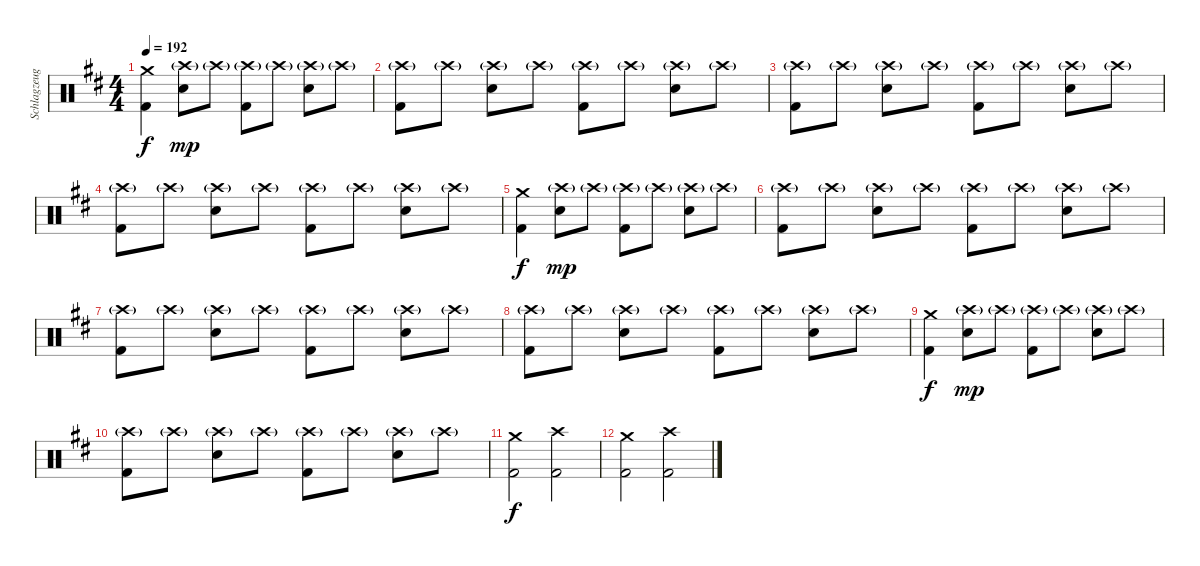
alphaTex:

\track ("Schlagzeug - Vom" "Schlagzeug") {instrument percussion}
\staff {score}
\articulation defaults
\ts (4 4)
\tempo 192
\clef neutral
\ks d
("Crash medium (hit)" "Kick (hit) 2").4{dy f} ("Crash high (hit)"{g} "Snare (hit) 2").8{dy mp} "Crash high (hit)"{g}.8 ("Crash high (hit)"{g} "Kick (hit) 2").8 "Crash high (hit)"{g}.8 ("Crash high (hit)"{g} "Snare (hit) 2").8 "Crash high (hit)"{g}.8 |
("Crash high (hit)"{g} "Kick (hit) 2").8 "Crash high (hit)"{g}.8 ("Crash high (hit)"{g} "Snare (hit) 2").8 "Crash high (hit)"{g}.8 ("Crash high (hit)"{g} "Kick (hit) 2").8 "Crash high (hit)"{g}.8 ("Crash high (hit)"{g} "Snare (hit) 2").8 "Crash high (hit)"{g}.8 |
("Crash high (hit)"{g} "Kick (hit) 2").8 "Crash high (hit)"{g}.8 ("Crash high (hit)"{g} "Snare (hit) 2").8 "Crash high (hit)"{g}.8 ("Crash high (hit)"{g} "Kick (hit) 2").8 "Crash high (hit)"{g}.8 ("Crash high (hit)"{g} "Snare (hit) 2").8 "Crash high (hit)"{g}.8 |
("Crash high (hit)"{g} "Kick (hit) 2").8 "Crash high (hit)"{g}.8 ("Crash high (hit)"{g} "Snare (hit) 2").8 "Crash high (hit)"{g}.8 ("Crash high (hit)"{g} "Kick (hit) 2").8 "Crash high (hit)"{g}.8 ("Crash high (hit)"{g} "Snare (hit) 2").8 "Crash high (hit)"{g}.8 |
("Crash medium (hit)" "Kick (hit) 2").4{dy f} ("Crash high (hit)"{g} "Snare (hit) 2").8{dy mp} "Crash high (hit)"{g}.8 ("Crash high (hit)"{g} "Kick (hit) 2").8 "Crash high (hit)"{g}.8 ("Crash high (hit)"{g} "Snare (hit) 2").8 "Crash high (hit)"{g}.8 |
("Crash high (hit)"{g} "Kick (hit) 2").8 "Crash high (hit)"{g}.8 ("Crash high (hit)"{g} "Snare (hit) 2").8 "Crash high (hit)"{g}.8 ("Crash high (hit)"{g} "Kick (hit) 2").8 "Crash high (hit)"{g}.8 ("Crash high (hit)"{g} "Snare (hit) 2").8 "Crash high (hit)"{g}.8 |
("Crash high (hit)"{g} "Kick (hit) 2").8 "Crash high (hit)"{g}.8 ("Crash high (hit)"{g} "Snare (hit) 2").8 "Crash high (hit)"{g}.8 ("Crash high (hit)"{g} "Kick (hit) 2").8 "Crash high (hit)"{g}.8 ("Crash high (hit)"{g} "Snare (hit) 2").8 "Crash high (hit)"{g}.8 |
("Crash high (hit)"{g} "Kick (hit) 2").8 "Crash high (hit)"{g}.8 ("Crash high (hit)"{g} "Snare (hit) 2").8 "Crash high (hit)"{g}.8 ("Crash high (hit)"{g} "Kick (hit) 2").8 "Crash high (hit)"{g}.8 ("Crash high (hit)"{g} "Snare (hit) 2").8 "Crash high (hit)"{g}.8 |
("Crash medium (hit)" "Kick (hit) 2").4{dy f} ("Crash high (hit)"{g} "Snare (hit) 2").8{dy mp} "Crash high (hit)"{g}.8 ("Crash high (hit)"{g} "Kick (hit) 2").8 "Crash high (hit)"{g}.8 ("Crash high (hit)"{g} "Snare (hit) 2").8 "Crash high (hit)"{g}.8 |
("Crash high (hit)"{g} "Kick (hit) 2").8 "Crash high (hit)"{g}.8 ("Crash high (hit)"{g} "Snare (hit) 2").8 "Crash high (hit)"{g}.8 ("Crash high (hit)"{g} "Kick (hit) 2").8 "Crash high (hit)"{g}.8 ("Crash high (hit)"{g} "Snare (hit) 2").8 "Crash high (hit)"{g}.8 |
("Crash medium (hit)" "Kick (hit) 2").2{dy f} ("Crash high (hit)" "Kick (hit) 2").2 |
("Crash medium (hit)" "Kick (hit) 2").2 ("Crash high (hit)" "Kick (hit) 2").2
